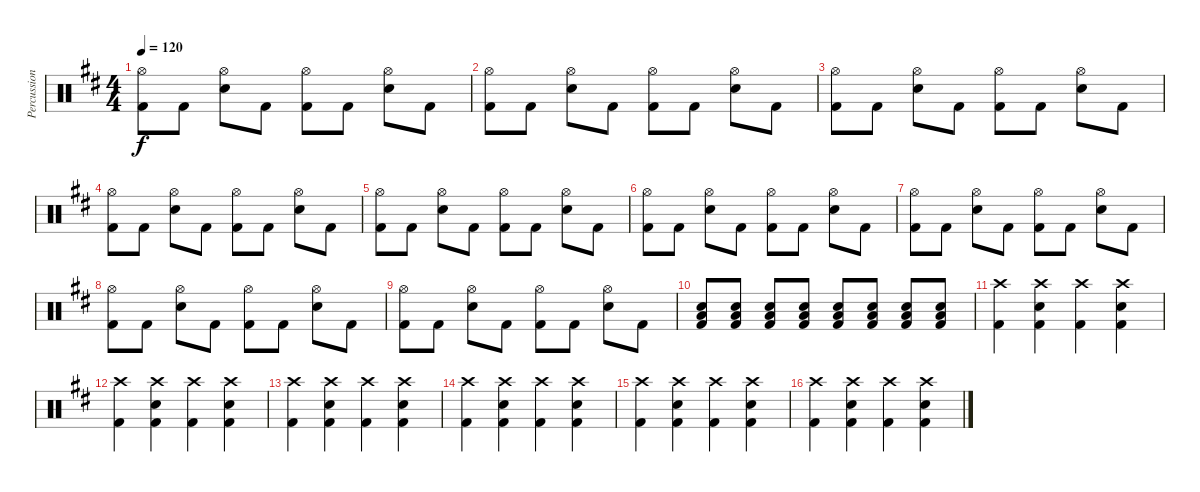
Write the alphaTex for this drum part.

\track ("Percussion" "Percussion") {instrument percussion}
\staff {score}
\articulation defaults
\ts (4 4)
\tempo 120
\clef neutral
\ks d
("Hi-Hat (open)" "Kick (hit) 2").8{dy f} "Kick (hit) 2".8 ("Hi-Hat (open)" "Snare (hit) 2").8 "Kick (hit) 2".8 ("Hi-Hat (open)" "Kick (hit) 2").8 "Kick (hit) 2".8 ("Hi-Hat (open)" "Snare (hit) 2").8 "Kick (hit) 2".8 |
("Hi-Hat (open)" "Kick (hit) 2").8 "Kick (hit) 2".8 ("Hi-Hat (open)" "Snare (hit) 2").8 "Kick (hit) 2".8 ("Hi-Hat (open)" "Kick (hit) 2").8 "Kick (hit) 2".8 ("Hi-Hat (open)" "Snare (hit) 2").8 "Kick (hit) 2".8 |
("Hi-Hat (open)" "Kick (hit) 2").8 "Kick (hit) 2".8 ("Hi-Hat (open)" "Snare (hit) 2").8 "Kick (hit) 2".8 ("Hi-Hat (open)" "Kick (hit) 2").8 "Kick (hit) 2".8 ("Hi-Hat (open)" "Snare (hit) 2").8 "Kick (hit) 2".8 |
("Hi-Hat (open)" "Kick (hit) 2").8 "Kick (hit) 2".8 ("Hi-Hat (open)" "Snare (hit) 2").8 "Kick (hit) 2".8 ("Hi-Hat (open)" "Kick (hit) 2").8 "Kick (hit) 2".8 ("Hi-Hat (open)" "Snare (hit) 2").8 "Kick (hit) 2".8 |
("Hi-Hat (open)" "Kick (hit) 2").8 "Kick (hit) 2".8 ("Hi-Hat (open)" "Snare (hit) 2").8 "Kick (hit) 2".8 ("Hi-Hat (open)" "Kick (hit) 2").8 "Kick (hit) 2".8 ("Hi-Hat (open)" "Snare (hit) 2").8 "Kick (hit) 2".8 |
("Hi-Hat (open)" "Kick (hit) 2").8 "Kick (hit) 2".8 ("Hi-Hat (open)" "Snare (hit) 2").8 "Kick (hit) 2".8 ("Hi-Hat (open)" "Kick (hit) 2").8 "Kick (hit) 2".8 ("Hi-Hat (open)" "Snare (hit) 2").8 "Kick (hit) 2".8 |
("Hi-Hat (open)" "Kick (hit) 2").8 "Kick (hit) 2".8 ("Hi-Hat (open)" "Snare (hit) 2").8 "Kick (hit) 2".8 ("Hi-Hat (open)" "Kick (hit) 2").8 "Kick (hit) 2".8 ("Hi-Hat (open)" "Snare (hit) 2").8 "Kick (hit) 2".8 |
("Hi-Hat (open)" "Kick (hit) 2").8 "Kick (hit) 2".8 ("Hi-Hat (open)" "Snare (hit) 2").8 "Kick (hit) 2".8 ("Hi-Hat (open)" "Kick (hit) 2").8 "Kick (hit) 2".8 ("Hi-Hat (open)" "Snare (hit) 2").8 "Kick (hit) 2".8 |
("Hi-Hat (open)" "Kick (hit) 2").8 "Kick (hit) 2".8 ("Hi-Hat (open)" "Snare (hit) 2").8 "Kick (hit) 2".8 ("Hi-Hat (open)" "Kick (hit) 2").8 "Kick (hit) 2".8 ("Hi-Hat (open)" "Snare (hit) 2").8 "Kick (hit) 2".8 |
("Low Floor Tom (hit)" "Snare (hit) 2" "Kick (hit) 2").8 ("Low Floor Tom (hit)" "Snare (hit) 2" "Kick (hit) 2").8 ("Low Floor Tom (hit)" "Snare (hit) 2" "Kick (hit) 2").8 ("Low Floor Tom (hit)" "Snare (hit) 2" "Kick (hit) 2").8 ("Low Floor Tom (hit)" "Snare (hit) 2" "Kick (hit) 2").8 ("Low Floor Tom (hit)" "Snare (hit) 2" "Kick (hit) 2").8 ("Low Floor Tom (hit)" "Snare (hit) 2" "Kick (hit) 2").8 ("Low Floor Tom (hit)" "Snare (hit) 2" "Kick (hit) 2").8 |
("Crash high (hit)" "Kick (hit) 2").4 ("Crash high (hit)" "Snare (hit) 2" "Kick (hit) 2").4 ("Crash high (hit)" "Kick (hit) 2").4 ("Crash high (hit)" "Snare (hit) 2" "Kick (hit) 2").4 |
("Crash high (hit)" "Kick (hit) 2").4 ("Crash high (hit)" "Snare (hit) 2" "Kick (hit) 2").4 ("Crash high (hit)" "Kick (hit) 2").4 ("Crash high (hit)" "Snare (hit) 2" "Kick (hit) 2").4 |
("Crash high (hit)" "Kick (hit) 2").4 ("Crash high (hit)" "Snare (hit) 2" "Kick (hit) 2").4 ("Crash high (hit)" "Kick (hit) 2").4 ("Crash high (hit)" "Snare (hit) 2" "Kick (hit) 2").4 |
("Crash high (hit)" "Kick (hit) 2").4 ("Crash high (hit)" "Snare (hit) 2" "Kick (hit) 2").4 ("Crash high (hit)" "Kick (hit) 2").4 ("Crash high (hit)" "Snare (hit) 2" "Kick (hit) 2").4 |
("Crash high (hit)" "Kick (hit) 2").4 ("Crash high (hit)" "Snare (hit) 2" "Kick (hit) 2").4 ("Crash high (hit)" "Kick (hit) 2").4 ("Crash high (hit)" "Snare (hit) 2" "Kick (hit) 2").4 |
("Crash high (hit)" "Kick (hit) 2").4 ("Crash high (hit)" "Snare (hit) 2" "Kick (hit) 2").4 ("Crash high (hit)" "Kick (hit) 2").4 ("Crash high (hit)" "Snare (hit) 2" "Kick (hit) 2").4
